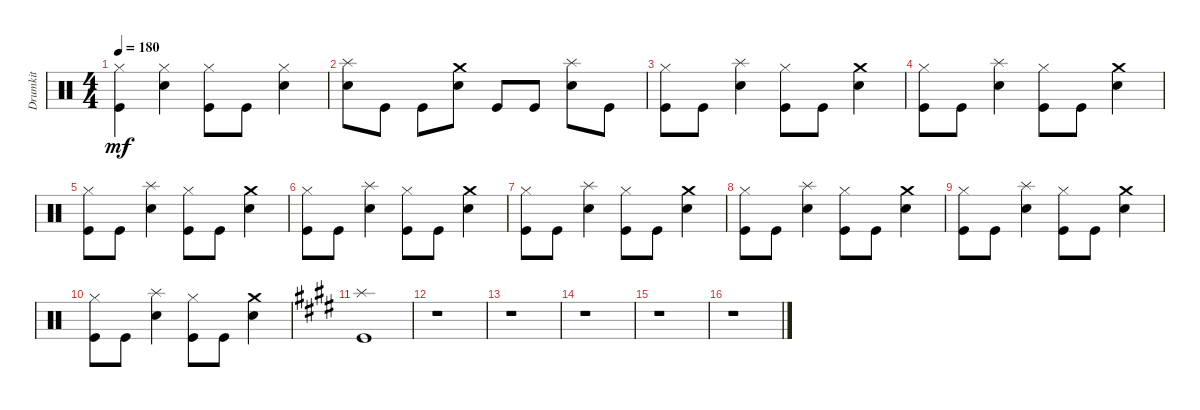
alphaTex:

\track ("Drumkit" "Drumkit") {instrument percussion}
\staff {score}
\articulation defaults
\ts (4 4)
\tempo 180
\clef neutral
\ks c
("Kick (hit)" "Hi-Hat (closed)").4{dy mf} ("Snare (hit) 2" "Hi-Hat (closed)").4 ("Kick (hit)" "Hi-Hat (closed)").8 "Kick (hit)".8 ("Snare (hit) 2" "Hi-Hat (closed)").4 |
("Snare (hit) 2" "Splash (hit)").8 "Kick (hit)".8 "Kick (hit)".8 ("Snare (hit) 2" "Crash medium (hit)").8 "Kick (hit)".8 "Kick (hit)".8 ("Snare (hit) 2" "Splash (hit)").8 "Kick (hit)".8 |
("Kick (hit)" "Hi-Hat (closed)").8 "Kick (hit)".8 ("Snare (hit) 2" "Splash (hit)").4 ("Kick (hit)" "Hi-Hat (closed)").8 "Kick (hit)".8 ("Snare (hit) 2" "Crash medium (hit)").4 |
("Kick (hit)" "Hi-Hat (closed)").8 "Kick (hit)".8 ("Snare (hit) 2" "Splash (hit)").4 ("Kick (hit)" "Hi-Hat (closed)").8 "Kick (hit)".8 ("Snare (hit) 2" "Crash medium (hit)").4 |
("Kick (hit)" "Hi-Hat (closed)").8 "Kick (hit)".8 ("Snare (hit) 2" "Splash (hit)").4 ("Kick (hit)" "Hi-Hat (closed)").8 "Kick (hit)".8 ("Snare (hit) 2" "Crash medium (hit)").4 |
("Kick (hit)" "Hi-Hat (closed)").8 "Kick (hit)".8 ("Snare (hit) 2" "Splash (hit)").4 ("Kick (hit)" "Hi-Hat (closed)").8 "Kick (hit)".8 ("Snare (hit) 2" "Crash medium (hit)").4 |
("Kick (hit)" "Hi-Hat (closed)").8 "Kick (hit)".8 ("Snare (hit) 2" "Splash (hit)").4 ("Kick (hit)" "Hi-Hat (closed)").8 "Kick (hit)".8 ("Snare (hit) 2" "Crash medium (hit)").4 |
("Kick (hit)" "Hi-Hat (closed)").8 "Kick (hit)".8 ("Snare (hit) 2" "Splash (hit)").4 ("Kick (hit)" "Hi-Hat (closed)").8 "Kick (hit)".8 ("Snare (hit) 2" "Crash medium (hit)").4 |
("Kick (hit)" "Hi-Hat (closed)").8 "Kick (hit)".8 ("Snare (hit) 2" "Splash (hit)").4 ("Kick (hit)" "Hi-Hat (closed)").8 "Kick (hit)".8 ("Snare (hit) 2" "Crash medium (hit)").4 |
("Kick (hit)" "Hi-Hat (closed)").8 "Kick (hit)".8 ("Snare (hit) 2" "Splash (hit)").4 ("Kick (hit)" "Hi-Hat (closed)").8 "Kick (hit)".8 ("Snare (hit) 2" "Crash medium (hit)").4 |
\ks e
("Kick (hit)" "Splash (hit)").1 |
r.1 |
r.1 |
r.1 |
r.1 |
r.1
